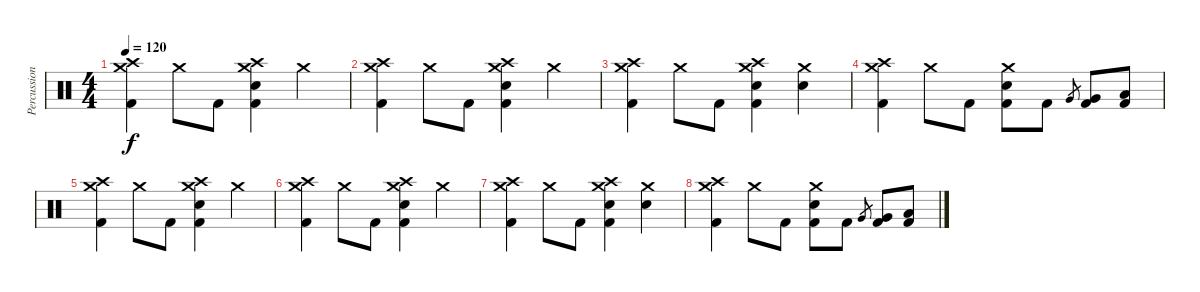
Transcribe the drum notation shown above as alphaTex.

\track ("Percussion" "Percussion") {instrument percussion}
\staff {score}
\articulation defaults
\ts (4 4)
\tempo 120
\clef neutral
\ks c
("Crash medium (hit)" "Crash high (hit)" "Kick (hit) 2").4{dy f} "Crash medium (hit)".8 "Kick (hit) 2".8 ("Crash medium (hit)" "Crash high (hit)" "Snare (hit) 2" "Kick (hit) 2").4 "Crash medium (hit)".4 |
("Crash medium (hit)" "Crash high (hit)" "Kick (hit) 2").4 "Crash medium (hit)".8 "Kick (hit) 2".8 ("Crash medium (hit)" "Crash high (hit)" "Snare (hit) 2" "Kick (hit) 2").4 "Crash medium (hit)".4 |
("Crash medium (hit)" "Crash high (hit)" "Kick (hit) 2").4 "Crash medium (hit)".8 "Kick (hit) 2".8 ("Crash medium (hit)" "Crash high (hit)" "Snare (hit) 2" "Kick (hit) 2").4 ("Crash medium (hit)" "Snare (hit) 2").4 |
("Crash medium (hit)" "Crash high (hit)" "Kick (hit) 2").4 "Crash medium (hit)".8 "Kick (hit) 2".8 ("Crash medium (hit)" "Snare (hit) 2" "Kick (hit) 2").8 "Kick (hit) 2".8 "Very Low Tom (hit)".8{gr} ("Very Low Tom (hit)" "Kick (hit) 2").8 ("Low Floor Tom (hit)" "Kick (hit) 2").8 |
("Crash medium (hit)" "Crash high (hit)" "Kick (hit) 2").4 "Crash medium (hit)".8 "Kick (hit) 2".8 ("Crash medium (hit)" "Crash high (hit)" "Snare (hit) 2" "Kick (hit) 2").4 "Crash medium (hit)".4 |
("Crash medium (hit)" "Crash high (hit)" "Kick (hit) 2").4 "Crash medium (hit)".8 "Kick (hit) 2".8 ("Crash medium (hit)" "Crash high (hit)" "Snare (hit) 2" "Kick (hit) 2").4 "Crash medium (hit)".4 |
("Crash medium (hit)" "Crash high (hit)" "Kick (hit) 2").4 "Crash medium (hit)".8 "Kick (hit) 2".8 ("Crash medium (hit)" "Crash high (hit)" "Snare (hit) 2" "Kick (hit) 2").4 ("Crash medium (hit)" "Snare (hit) 2").4 |
("Crash medium (hit)" "Crash high (hit)" "Kick (hit) 2").4 "Crash medium (hit)".8 "Kick (hit) 2".8 ("Crash medium (hit)" "Snare (hit) 2" "Kick (hit) 2").8 "Kick (hit) 2".8 "Very Low Tom (hit)".8{gr} ("Very Low Tom (hit)" "Kick (hit) 2").8 ("Low Floor Tom (hit)" "Kick (hit) 2").8
